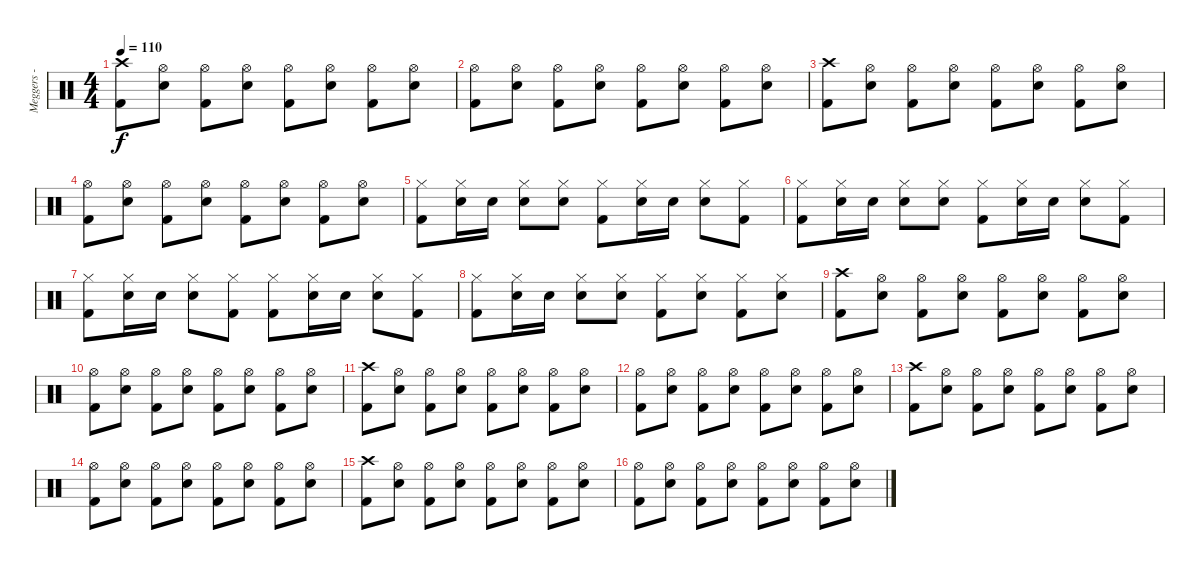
\track ("Meggers - Drums" "Meggers - ") {instrument percussion}
\staff {score}
\articulation defaults
\ts (4 4)
\tempo 110
\clef neutral
\ks c
("Crash high (hit)" "Kick (hit) 2").8{dy f} ("Hi-Hat (open)" "Electric Snare (hit)").8 ("Hi-Hat (open)" "Kick (hit) 2").8 ("Hi-Hat (open)" "Electric Snare (hit)").8 ("Hi-Hat (open)" "Kick (hit) 2").8 ("Hi-Hat (open)" "Electric Snare (hit)").8 ("Hi-Hat (open)" "Kick (hit) 2").8 ("Hi-Hat (open)" "Electric Snare (hit)").8 |
("Hi-Hat (open)" "Kick (hit) 2").8 ("Hi-Hat (open)" "Electric Snare (hit)").8 ("Hi-Hat (open)" "Kick (hit) 2").8 ("Hi-Hat (open)" "Electric Snare (hit)").8 ("Hi-Hat (open)" "Kick (hit) 2").8 ("Hi-Hat (open)" "Electric Snare (hit)").8 ("Hi-Hat (open)" "Kick (hit) 2").8 ("Hi-Hat (open)" "Electric Snare (hit)").8 |
("Crash high (hit)" "Kick (hit) 2").8 ("Hi-Hat (open)" "Electric Snare (hit)").8 ("Hi-Hat (open)" "Kick (hit) 2").8 ("Hi-Hat (open)" "Electric Snare (hit)").8 ("Hi-Hat (open)" "Kick (hit) 2").8 ("Hi-Hat (open)" "Electric Snare (hit)").8 ("Hi-Hat (open)" "Kick (hit) 2").8 ("Hi-Hat (open)" "Electric Snare (hit)").8 |
("Hi-Hat (open)" "Kick (hit) 2").8 ("Hi-Hat (open)" "Electric Snare (hit)").8 ("Hi-Hat (open)" "Kick (hit) 2").8 ("Hi-Hat (open)" "Electric Snare (hit)").8 ("Hi-Hat (open)" "Kick (hit) 2").8 ("Hi-Hat (open)" "Electric Snare (hit)").8 ("Hi-Hat (open)" "Kick (hit) 2").8 ("Hi-Hat (open)" "Electric Snare (hit)").8 |
("Hi-Hat (closed)" "Kick (hit) 2").8 ("Hi-Hat (closed)" "Electric Snare (hit)").16 "Electric Snare (hit)".16 ("Hi-Hat (closed)" "Electric Snare (hit)").8 ("Hi-Hat (closed)" "Electric Snare (hit)").8 ("Hi-Hat (closed)" "Kick (hit) 2").8 ("Hi-Hat (closed)" "Electric Snare (hit)").16 "Electric Snare (hit)".16 ("Hi-Hat (closed)" "Electric Snare (hit)").8 ("Hi-Hat (closed)" "Kick (hit) 2").8 |
("Hi-Hat (closed)" "Kick (hit) 2").8 ("Hi-Hat (closed)" "Electric Snare (hit)").16 "Electric Snare (hit)".16 ("Hi-Hat (closed)" "Electric Snare (hit)").8 ("Hi-Hat (closed)" "Electric Snare (hit)").8 ("Hi-Hat (closed)" "Kick (hit) 2").8 ("Hi-Hat (closed)" "Electric Snare (hit)").16 "Electric Snare (hit)".16 ("Hi-Hat (closed)" "Electric Snare (hit)").8 ("Hi-Hat (closed)" "Kick (hit) 2").8 |
("Hi-Hat (closed)" "Kick (hit) 2").8 ("Hi-Hat (closed)" "Electric Snare (hit)").16 "Electric Snare (hit)".16 ("Hi-Hat (closed)" "Electric Snare (hit)").8 ("Hi-Hat (closed)" "Kick (hit) 2").8 ("Hi-Hat (closed)" "Kick (hit) 2").8 ("Hi-Hat (closed)" "Electric Snare (hit)").16 "Electric Snare (hit)".16 ("Hi-Hat (closed)" "Electric Snare (hit)").8 ("Hi-Hat (closed)" "Kick (hit) 2").8 |
("Hi-Hat (closed)" "Kick (hit) 2").8 ("Hi-Hat (closed)" "Electric Snare (hit)").16 "Electric Snare (hit)".16 ("Hi-Hat (closed)" "Electric Snare (hit)").8 ("Hi-Hat (closed)" "Electric Snare (hit)").8 ("Hi-Hat (closed)" "Kick (hit) 2").8 ("Hi-Hat (closed)" "Electric Snare (hit)").8 ("Hi-Hat (closed)" "Kick (hit) 2").8 ("Hi-Hat (closed)" "Electric Snare (hit)").8 |
("Crash high (hit)" "Kick (hit) 2").8 ("Hi-Hat (open)" "Electric Snare (hit)").8 ("Hi-Hat (open)" "Kick (hit) 2").8 ("Hi-Hat (open)" "Electric Snare (hit)").8 ("Hi-Hat (open)" "Kick (hit) 2").8 ("Hi-Hat (open)" "Electric Snare (hit)").8 ("Hi-Hat (open)" "Kick (hit) 2").8 ("Hi-Hat (open)" "Electric Snare (hit)").8 |
("Hi-Hat (open)" "Kick (hit) 2").8 ("Hi-Hat (open)" "Electric Snare (hit)").8 ("Hi-Hat (open)" "Kick (hit) 2").8 ("Hi-Hat (open)" "Electric Snare (hit)").8 ("Hi-Hat (open)" "Kick (hit) 2").8 ("Hi-Hat (open)" "Electric Snare (hit)").8 ("Hi-Hat (open)" "Kick (hit) 2").8 ("Hi-Hat (open)" "Electric Snare (hit)").8 |
("Crash high (hit)" "Kick (hit) 2").8 ("Hi-Hat (open)" "Electric Snare (hit)").8 ("Hi-Hat (open)" "Kick (hit) 2").8 ("Hi-Hat (open)" "Electric Snare (hit)").8 ("Hi-Hat (open)" "Kick (hit) 2").8 ("Hi-Hat (open)" "Electric Snare (hit)").8 ("Hi-Hat (open)" "Kick (hit) 2").8 ("Hi-Hat (open)" "Electric Snare (hit)").8 |
("Hi-Hat (open)" "Kick (hit) 2").8 ("Hi-Hat (open)" "Electric Snare (hit)").8 ("Hi-Hat (open)" "Kick (hit) 2").8 ("Hi-Hat (open)" "Electric Snare (hit)").8 ("Hi-Hat (open)" "Kick (hit) 2").8 ("Hi-Hat (open)" "Electric Snare (hit)").8 ("Hi-Hat (open)" "Kick (hit) 2").8 ("Hi-Hat (open)" "Electric Snare (hit)").8 |
("Crash high (hit)" "Kick (hit) 2").8 ("Hi-Hat (open)" "Electric Snare (hit)").8 ("Hi-Hat (open)" "Kick (hit) 2").8 ("Hi-Hat (open)" "Electric Snare (hit)").8 ("Hi-Hat (open)" "Kick (hit) 2").8 ("Hi-Hat (open)" "Electric Snare (hit)").8 ("Hi-Hat (open)" "Kick (hit) 2").8 ("Hi-Hat (open)" "Electric Snare (hit)").8 |
("Hi-Hat (open)" "Kick (hit) 2").8 ("Hi-Hat (open)" "Electric Snare (hit)").8 ("Hi-Hat (open)" "Kick (hit) 2").8 ("Hi-Hat (open)" "Electric Snare (hit)").8 ("Hi-Hat (open)" "Kick (hit) 2").8 ("Hi-Hat (open)" "Electric Snare (hit)").8 ("Hi-Hat (open)" "Kick (hit) 2").8 ("Hi-Hat (open)" "Electric Snare (hit)").8 |
("Crash high (hit)" "Kick (hit) 2").8 ("Hi-Hat (open)" "Electric Snare (hit)").8 ("Hi-Hat (open)" "Kick (hit) 2").8 ("Hi-Hat (open)" "Electric Snare (hit)").8 ("Hi-Hat (open)" "Kick (hit) 2").8 ("Hi-Hat (open)" "Electric Snare (hit)").8 ("Hi-Hat (open)" "Kick (hit) 2").8 ("Hi-Hat (open)" "Electric Snare (hit)").8 |
("Hi-Hat (open)" "Kick (hit) 2").8 ("Hi-Hat (open)" "Electric Snare (hit)").8 ("Hi-Hat (open)" "Kick (hit) 2").8 ("Hi-Hat (open)" "Electric Snare (hit)").8 ("Hi-Hat (open)" "Kick (hit) 2").8 ("Hi-Hat (open)" "Electric Snare (hit)").8 ("Hi-Hat (open)" "Kick (hit) 2").8 ("Hi-Hat (open)" "Electric Snare (hit)").8
